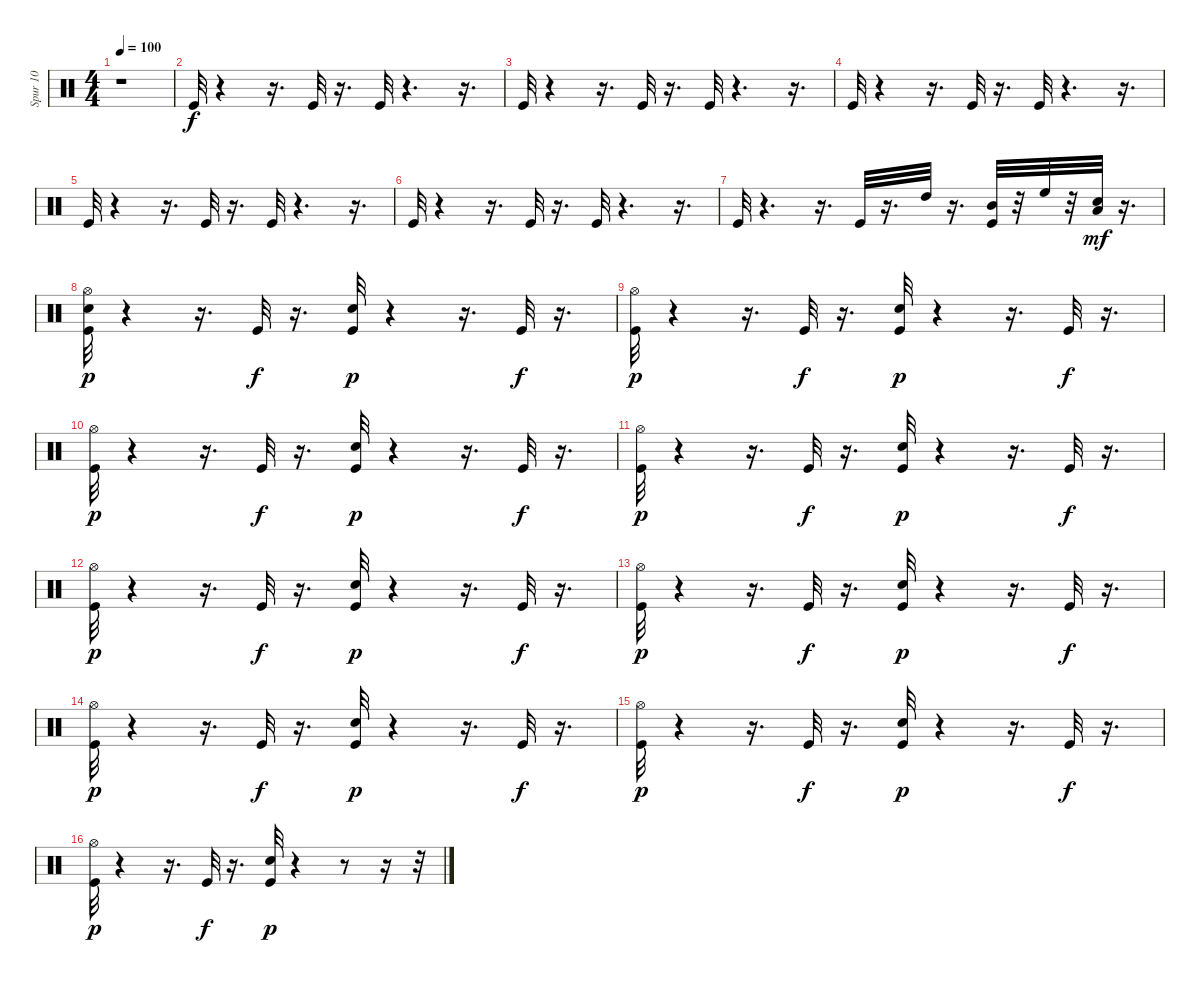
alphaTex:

\track ("Spur 10" "Spur 10") {instrument percussion}
\staff {score}
\articulation defaults
\ts (4 4)
\tempo 100
\clef neutral
\ks c
r.1{dy f} |
"Kick (hit)".32 r.4 r.16{d} "Kick (hit)".32 r.16{d} "Kick (hit)".32 r.4{d} r.16{d} |
"Kick (hit)".32 r.4 r.16{d} "Kick (hit)".32 r.16{d} "Kick (hit)".32 r.4{d} r.16{d} |
"Kick (hit)".32 r.4 r.16{d} "Kick (hit)".32 r.16{d} "Kick (hit)".32 r.4{d} r.16{d} |
"Kick (hit)".32 r.4 r.16{d} "Kick (hit)".32 r.16{d} "Kick (hit)".32 r.4{d} r.16{d} |
"Kick (hit)".32 r.4 r.16{d} "Kick (hit)".32 r.16{d} "Kick (hit)".32 r.4{d} r.16{d} |
"Kick (hit)".32 r.4{d} r.16{d} "Kick (hit)".32 r.16{d} "High Tom (hit)".32 r.16{d} ("Mid Tom (hit)" "Kick (hit)").32 r.32 "High Floor Tom (hit)".32 r.32 ("Low Tom (hit)" "Snare (hit) 2").32{dy mf} r.16{d} |
("Snare (hit) 2" "Hi-Hat (open)" "Kick (hit)").32{dy p} r.4 r.16{d} "Kick (hit)".32{dy f} r.16{d} ("Kick (hit)" "Snare (hit) 2").32{dy p} r.4 r.16{d} "Kick (hit)".32{dy f} r.16{d} |
("Kick (hit)" "Hi-Hat (open)").32{dy p} r.4 r.16{d} "Kick (hit)".32{dy f} r.16{d} ("Kick (hit)" "Snare (hit) 2").32{dy p} r.4 r.16{d} "Kick (hit)".32{dy f} r.16{d} |
("Kick (hit)" "Hi-Hat (open)").32{dy p} r.4 r.16{d} "Kick (hit)".32{dy f} r.16{d} ("Kick (hit)" "Snare (hit) 2").32{dy p} r.4 r.16{d} "Kick (hit)".32{dy f} r.16{d} |
("Hi-Hat (open)" "Kick (hit)").32{dy p} r.4 r.16{d} "Kick (hit)".32{dy f} r.16{d} ("Snare (hit) 2" "Kick (hit)").32{dy p} r.4 r.16{d} "Kick (hit)".32{dy f} r.16{d} |
("Kick (hit)" "Hi-Hat (open)").32{dy p} r.4 r.16{d} "Kick (hit)".32{dy f} r.16{d} ("Kick (hit)" "Snare (hit) 2").32{dy p} r.4 r.16{d} "Kick (hit)".32{dy f} r.16{d} |
("Hi-Hat (open)" "Kick (hit)").32{dy p} r.4 r.16{d} "Kick (hit)".32{dy f} r.16{d} ("Kick (hit)" "Snare (hit) 2").32{dy p} r.4 r.16{d} "Kick (hit)".32{dy f} r.16{d} |
("Kick (hit)" "Hi-Hat (open)").32{dy p} r.4 r.16{d} "Kick (hit)".32{dy f} r.16{d} ("Kick (hit)" "Snare (hit) 2").32{dy p} r.4 r.16{d} "Kick (hit)".32{dy f} r.16{d} |
("Hi-Hat (open)" "Kick (hit)").32{dy p} r.4 r.16{d} "Kick (hit)".32{dy f} r.16{d} ("Snare (hit) 2" "Kick (hit)").32{dy p} r.4 r.16{d} "Kick (hit)".32{dy f} r.16{d} |
("Kick (hit)" "Hi-Hat (open)").32{dy p} r.4 r.16{d} "Kick (hit)".32{dy f} r.16{d} ("Kick (hit)" "Snare (hit) 2").32{dy p} r.4 r.8 r.16 r.32
